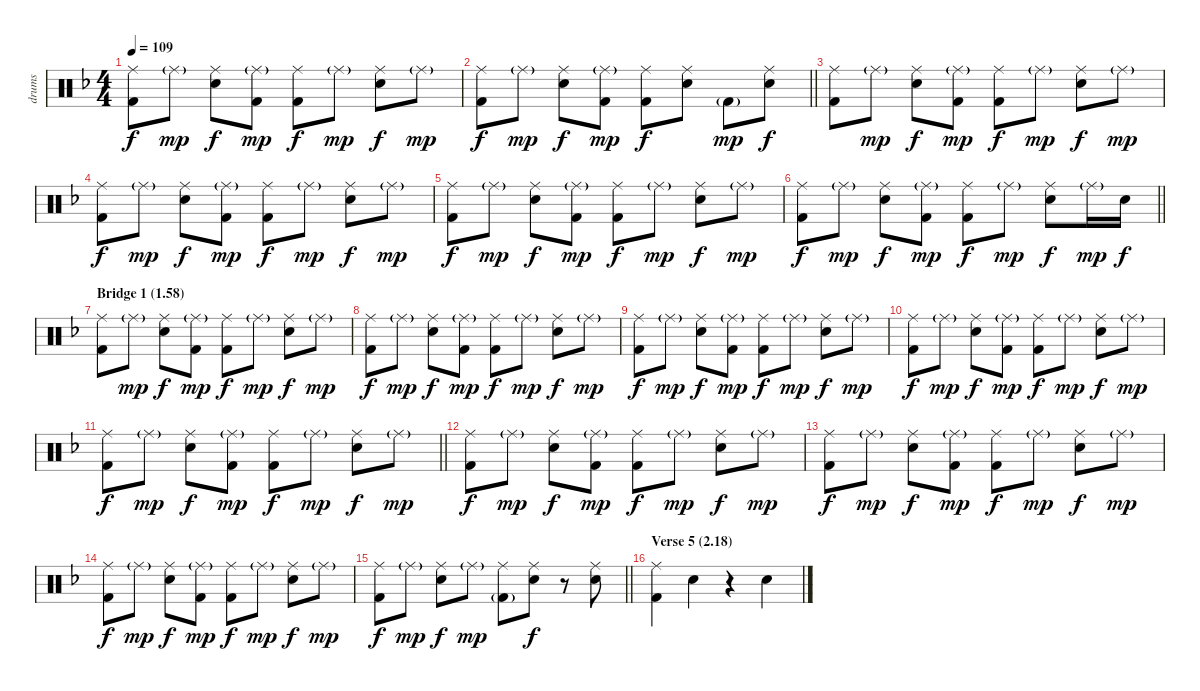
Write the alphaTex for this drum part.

\track ("drums" "drums") {instrument percussion}
\staff {score}
\articulation defaults
\ts (4 4)
\tempo 109
\clef neutral
\ks f
("Ride (middle)" "Kick (hit) 2").8{dy f} "Ride (middle)"{g}.8{dy mp} ("Ride (middle)" "Electric Snare (hit)").8{dy f} ("Ride (middle)"{g} "Kick (hit) 2").8{dy mp} ("Ride (middle)" "Kick (hit) 2").8{dy f} "Ride (middle)"{g}.8{dy mp} ("Ride (middle)" "Electric Snare (hit)").8{dy f} "Ride (middle)"{g}.8{dy mp} |
\barLineRight lightlight
("Ride (middle)" "Kick (hit) 2").8{dy f} "Ride (middle)"{g}.8{dy mp} ("Ride (middle)" "Electric Snare (hit)").8{dy f} ("Ride (middle)"{g} "Kick (hit) 2").8{dy mp} ("Ride (middle)" "Kick (hit) 2").8{dy f} ("Ride (middle)" "Electric Snare (hit)").8 "Kick (hit) 2"{g}.8{dy mp} ("Ride (middle)" "Electric Snare (hit)").8{dy f} |
("Ride (middle)" "Kick (hit) 2").8 "Ride (middle)"{g}.8{dy mp} ("Ride (middle)" "Electric Snare (hit)").8{dy f} ("Ride (middle)"{g} "Kick (hit) 2").8{dy mp} ("Ride (middle)" "Kick (hit) 2").8{dy f} "Ride (middle)"{g}.8{dy mp} ("Ride (middle)" "Electric Snare (hit)").8{dy f} "Ride (middle)"{g}.8{dy mp} |
("Ride (middle)" "Kick (hit) 2").8{dy f} "Ride (middle)"{g}.8{dy mp} ("Ride (middle)" "Electric Snare (hit)").8{dy f} ("Ride (middle)"{g} "Kick (hit) 2").8{dy mp} ("Ride (middle)" "Kick (hit) 2").8{dy f} "Ride (middle)"{g}.8{dy mp} ("Ride (middle)" "Electric Snare (hit)").8{dy f} "Ride (middle)"{g}.8{dy mp} |
("Ride (middle)" "Kick (hit) 2").8{dy f} "Ride (middle)"{g}.8{dy mp} ("Ride (middle)" "Electric Snare (hit)").8{dy f} ("Ride (middle)"{g} "Kick (hit) 2").8{dy mp} ("Ride (middle)" "Kick (hit) 2").8{dy f} "Ride (middle)"{g}.8{dy mp} ("Ride (middle)" "Electric Snare (hit)").8{dy f} "Ride (middle)"{g}.8{dy mp} |
\barLineRight lightlight
("Ride (middle)" "Kick (hit) 2").8{dy f} "Ride (middle)"{g}.8{dy mp} ("Ride (middle)" "Electric Snare (hit)").8{dy f} ("Ride (middle)"{g} "Kick (hit) 2").8{dy mp} ("Ride (middle)" "Kick (hit) 2").8{dy f} "Ride (middle)"{g}.8{dy mp} ("Ride (middle)" "Electric Snare (hit)").8{dy f} "Ride (middle)"{g}.16{dy mp} "Electric Snare (hit)".16{dy f} |
\section ("" "Bridge 1 (1.58)")
("Ride (middle)" "Kick (hit) 2").8 "Ride (middle)"{g}.8{dy mp} ("Ride (middle)" "Electric Snare (hit)").8{dy f} ("Ride (middle)"{g} "Kick (hit) 2").8{dy mp} ("Ride (middle)" "Kick (hit) 2").8{dy f} "Ride (middle)"{g}.8{dy mp} ("Ride (middle)" "Electric Snare (hit)").8{dy f} "Ride (middle)"{g}.8{dy mp} |
("Ride (middle)" "Kick (hit) 2").8{dy f} "Ride (middle)"{g}.8{dy mp} ("Ride (middle)" "Electric Snare (hit)").8{dy f} ("Ride (middle)"{g} "Kick (hit) 2").8{dy mp} ("Ride (middle)" "Kick (hit) 2").8{dy f} "Ride (middle)"{g}.8{dy mp} ("Ride (middle)" "Electric Snare (hit)").8{dy f} "Ride (middle)"{g}.8{dy mp} |
("Ride (middle)" "Kick (hit) 2").8{dy f} "Ride (middle)"{g}.8{dy mp} ("Ride (middle)" "Electric Snare (hit)").8{dy f} ("Ride (middle)"{g} "Kick (hit) 2").8{dy mp} ("Ride (middle)" "Kick (hit) 2").8{dy f} "Ride (middle)"{g}.8{dy mp} ("Ride (middle)" "Electric Snare (hit)").8{dy f} "Ride (middle)"{g}.8{dy mp} |
("Ride (middle)" "Kick (hit) 2").8{dy f} "Ride (middle)"{g}.8{dy mp} ("Ride (middle)" "Electric Snare (hit)").8{dy f} ("Ride (middle)"{g} "Kick (hit) 2").8{dy mp} ("Ride (middle)" "Kick (hit) 2").8{dy f} "Ride (middle)"{g}.8{dy mp} ("Ride (middle)" "Electric Snare (hit)").8{dy f} "Ride (middle)"{g}.8{dy mp} |
\barLineRight lightlight
("Ride (middle)" "Kick (hit) 2").8{dy f} "Ride (middle)"{g}.8{dy mp} ("Ride (middle)" "Electric Snare (hit)").8{dy f} ("Ride (middle)"{g} "Kick (hit) 2").8{dy mp} ("Ride (middle)" "Kick (hit) 2").8{dy f} "Ride (middle)"{g}.8{dy mp} ("Ride (middle)" "Electric Snare (hit)").8{dy f} "Ride (middle)"{g}.8{dy mp} |
("Ride (middle)" "Kick (hit) 2").8{dy f} "Ride (middle)"{g}.8{dy mp} ("Ride (middle)" "Electric Snare (hit)").8{dy f} ("Ride (middle)"{g} "Kick (hit) 2").8{dy mp} ("Ride (middle)" "Kick (hit) 2").8{dy f} "Ride (middle)"{g}.8{dy mp} ("Ride (middle)" "Electric Snare (hit)").8{dy f} "Ride (middle)"{g}.8{dy mp} |
("Ride (middle)" "Kick (hit) 2").8{dy f} "Ride (middle)"{g}.8{dy mp} ("Ride (middle)" "Electric Snare (hit)").8{dy f} ("Ride (middle)"{g} "Kick (hit) 2").8{dy mp} ("Ride (middle)" "Kick (hit) 2").8{dy f} "Ride (middle)"{g}.8{dy mp} ("Ride (middle)" "Electric Snare (hit)").8{dy f} "Ride (middle)"{g}.8{dy mp} |
("Ride (middle)" "Kick (hit) 2").8{dy f} "Ride (middle)"{g}.8{dy mp} ("Ride (middle)" "Electric Snare (hit)").8{dy f} ("Ride (middle)"{g} "Kick (hit) 2").8{dy mp} ("Ride (middle)" "Kick (hit) 2").8{dy f} "Ride (middle)"{g}.8{dy mp} ("Ride (middle)" "Electric Snare (hit)").8{dy f} "Ride (middle)"{g}.8{dy mp} |
\barLineRight lightlight
("Ride (middle)" "Kick (hit) 2").8{dy f} "Ride (middle)"{g}.8{dy mp} ("Ride (middle)" "Electric Snare (hit)").8{dy f} "Ride (middle)"{g}.8{dy mp} ("Ride (middle)" "Kick (hit) 2"{g}).8 ("Ride (middle)" "Electric Snare (hit)").8{dy f} r.8 ("Ride (middle)" "Electric Snare (hit)").8 |
\section ("" "Verse 5 (2.18)")
("Ride (middle)" "Kick (hit) 2").4 "Electric Snare (hit)".4 r.4 "Electric Snare (hit)".4
